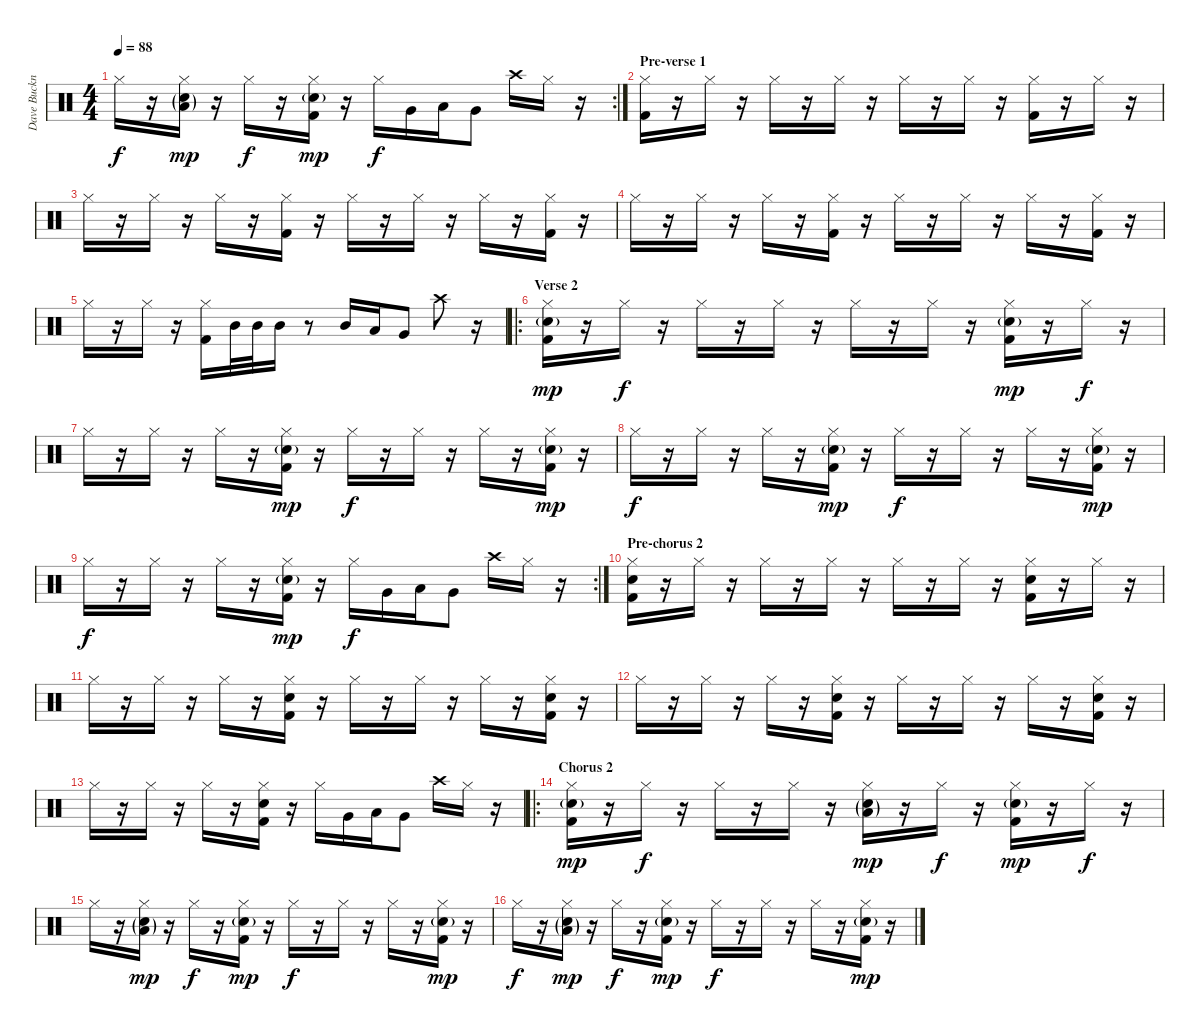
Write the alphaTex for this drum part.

\track ("Dave Buckner" "Dave Buckn") {instrument percussion}
\staff {score}
\articulation defaults
\rc 2
\ts (4 4)
\tempo 88
\clef neutral
\ks c "Hi-Hat (closed)".16{dy f}
r.16 ("Hi-Hat (closed)" "Low Tom (hit)"{g} "Snare (hit) 2"{g}).16{dy mp} r.16 "Hi-Hat (closed)".16{dy f} r.16 ("Hi-Hat (closed)" "Snare (hit) 2"{g} "Kick (hit) 2").16{dy mp} r.16 "Hi-Hat (closed)".16{dy f} "Very Low Tom (hit)".16 "Low Floor Tom (hit)".16 "Very Low Tom (hit)".8 "Crash high (hit)".16 "Hi-Hat (closed)".16 r.16 |
\section ("" "Pre-verse 1")
("Hi-Hat (closed)" "Kick (hit) 2").16 r.16 "Hi-Hat (closed)".16 r.16 "Hi-Hat (closed)".16 r.16 "Hi-Hat (closed)".16 r.16 "Hi-Hat (closed)".16 r.16 "Hi-Hat (closed)".16 r.16 ("Hi-Hat (closed)" "Kick (hit) 2").16 r.16 "Hi-Hat (closed)".16 r.16 |
"Hi-Hat (closed)".16 r.16 "Hi-Hat (closed)".16 r.16 "Hi-Hat (closed)".16 r.16 ("Hi-Hat (closed)" "Kick (hit) 2").16 r.16 "Hi-Hat (closed)".16 r.16 "Hi-Hat (closed)".16 r.16 "Hi-Hat (closed)".16 r.16 ("Hi-Hat (closed)" "Kick (hit) 2").16 r.16 |
"Hi-Hat (closed)".16 r.16 "Hi-Hat (closed)".16 r.16 "Hi-Hat (closed)".16 r.16 ("Hi-Hat (closed)" "Kick (hit) 2").16 r.16 "Hi-Hat (closed)".16 r.16 "Hi-Hat (closed)".16 r.16 "Hi-Hat (closed)".16 r.16 ("Hi-Hat (closed)" "Kick (hit) 2").16 r.16 |
"Hi-Hat (closed)".16 r.16 "Hi-Hat (closed)".16 r.16 ("Hi-Hat (closed)" "Kick (hit) 2").16 "Mid Tom (hit)".32 "Mid Tom (hit)".32 "Mid Tom (hit)".16 r.8 "Mid Tom (hit)".16 "Low Tom (hit)".16 "Very Low Tom (hit)".8 "Crash high (hit)".8 r.16 |
\ro
\section ("" "Verse 2")
("Hi-Hat (closed)" "Snare (hit) 2"{g} "Kick (hit) 2").16{dy mp} r.16 "Hi-Hat (closed)".16{dy f} r.16 "Hi-Hat (closed)".16 r.16 "Hi-Hat (closed)".16 r.16 "Hi-Hat (closed)".16 r.16 "Hi-Hat (closed)".16 r.16 ("Hi-Hat (closed)" "Snare (hit) 2"{g} "Kick (hit) 2").16{dy mp} r.16 "Hi-Hat (closed)".16{dy f} r.16 |
"Hi-Hat (closed)".16 r.16 "Hi-Hat (closed)".16 r.16 "Hi-Hat (closed)".16 r.16 ("Hi-Hat (closed)" "Snare (hit) 2"{g} "Kick (hit) 2").16{dy mp} r.16 "Hi-Hat (closed)".16{dy f} r.16 "Hi-Hat (closed)".16 r.16 "Hi-Hat (closed)".16 r.16 ("Hi-Hat (closed)" "Snare (hit) 2"{g} "Kick (hit) 2").16{dy mp} r.16 |
"Hi-Hat (closed)".16{dy f} r.16 "Hi-Hat (closed)".16 r.16 "Hi-Hat (closed)".16 r.16 ("Hi-Hat (closed)" "Snare (hit) 2"{g} "Kick (hit) 2").16{dy mp} r.16 "Hi-Hat (closed)".16{dy f} r.16 "Hi-Hat (closed)".16 r.16 "Hi-Hat (closed)".16 r.16 ("Hi-Hat (closed)" "Snare (hit) 2"{g} "Kick (hit) 2").16{dy mp} r.16 |
\rc 2 "Hi-Hat (closed)".16{dy f}
r.16 "Hi-Hat (closed)".16 r.16 "Hi-Hat (closed)".16 r.16 ("Hi-Hat (closed)" "Snare (hit) 2"{g} "Kick (hit) 2").16{dy mp} r.16 "Hi-Hat (closed)".16{dy f} "Very Low Tom (hit)".16 "Low Floor Tom (hit)".16 "Very Low Tom (hit)".8 "Crash high (hit)".16 "Hi-Hat (closed)".16 r.16 |
\section ("" "Pre-chorus 2")
("Hi-Hat (closed)" "Snare (hit) 2" "Kick (hit) 2").16 r.16 "Hi-Hat (closed)".16 r.16 "Hi-Hat (closed)".16 r.16 "Hi-Hat (closed)".16 r.16 "Hi-Hat (closed)".16 r.16 "Hi-Hat (closed)".16 r.16 ("Hi-Hat (closed)" "Snare (hit) 2" "Kick (hit) 2").16 r.16 "Hi-Hat (closed)".16 r.16 |
"Hi-Hat (closed)".16 r.16 "Hi-Hat (closed)".16 r.16 "Hi-Hat (closed)".16 r.16 ("Hi-Hat (closed)" "Snare (hit) 2" "Kick (hit) 2").16 r.16 "Hi-Hat (closed)".16 r.16 "Hi-Hat (closed)".16 r.16 "Hi-Hat (closed)".16 r.16 ("Hi-Hat (closed)" "Snare (hit) 2" "Kick (hit) 2").16 r.16 |
"Hi-Hat (closed)".16 r.16 "Hi-Hat (closed)".16 r.16 "Hi-Hat (closed)".16 r.16 ("Hi-Hat (closed)" "Snare (hit) 2" "Kick (hit) 2").16 r.16 "Hi-Hat (closed)".16 r.16 "Hi-Hat (closed)".16 r.16 "Hi-Hat (closed)".16 r.16 ("Hi-Hat (closed)" "Snare (hit) 2" "Kick (hit) 2").16 r.16 |
"Hi-Hat (closed)".16 r.16 "Hi-Hat (closed)".16 r.16 "Hi-Hat (closed)".16 r.16 ("Hi-Hat (closed)" "Snare (hit) 2" "Kick (hit) 2").16 r.16 "Hi-Hat (closed)".16 "Very Low Tom (hit)".16 "Low Floor Tom (hit)".16 "Very Low Tom (hit)".8 "Crash high (hit)".16 "Hi-Hat (closed)".16 r.16 |
\ro
\section ("" "Chorus 2")
("Hi-Hat (closed)" "Snare (hit) 2"{g} "Kick (hit) 2").16{dy mp} r.16 "Hi-Hat (closed)".16{dy f} r.16 "Hi-Hat (closed)".16 r.16 "Hi-Hat (closed)".16 r.16 ("Hi-Hat (closed)" "Low Tom (hit)"{g} "Snare (hit) 2"{g}).16{dy mp} r.16 "Hi-Hat (closed)".16{dy f} r.16 ("Hi-Hat (closed)" "Snare (hit) 2"{g} "Kick (hit) 2").16{dy mp} r.16 "Hi-Hat (closed)".16{dy f} r.16 |
"Hi-Hat (closed)".16 r.16 ("Hi-Hat (closed)" "Low Tom (hit)"{g} "Snare (hit) 2"{g}).16{dy mp} r.16 "Hi-Hat (closed)".16{dy f} r.16 ("Hi-Hat (closed)" "Snare (hit) 2"{g} "Kick (hit) 2").16{dy mp} r.16 "Hi-Hat (closed)".16{dy f} r.16 "Hi-Hat (closed)".16 r.16 "Hi-Hat (closed)".16 r.16 ("Hi-Hat (closed)" "Snare (hit) 2"{g} "Kick (hit) 2").16{dy mp} r.16 |
"Hi-Hat (closed)".16{dy f} r.16 ("Hi-Hat (closed)" "Low Tom (hit)"{g} "Snare (hit) 2"{g}).16{dy mp} r.16 "Hi-Hat (closed)".16{dy f} r.16 ("Hi-Hat (closed)" "Snare (hit) 2"{g} "Kick (hit) 2").16{dy mp} r.16 "Hi-Hat (closed)".16{dy f} r.16 "Hi-Hat (closed)".16 r.16 "Hi-Hat (closed)".16 r.16 ("Hi-Hat (closed)" "Snare (hit) 2"{g} "Kick (hit) 2").16{dy mp} r.16
